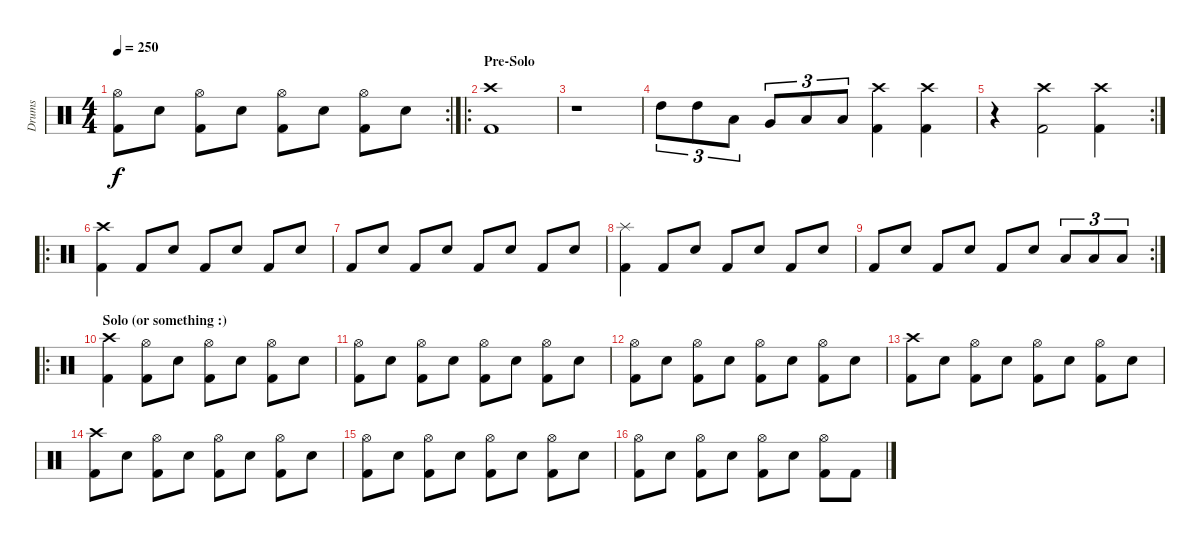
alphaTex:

\track ("Drums" "Drums") {instrument percussion}
\staff {score}
\articulation defaults
\rc 2
\ts (4 4)
\tempo 250
\clef neutral
\ks c
("Hi-Hat (open)" "Kick (hit) 2").8{dy f} "Snare (hit) 2".8 ("Hi-Hat (open)" "Kick (hit) 2").8 "Snare (hit) 2".8 ("Hi-Hat (open)" "Kick (hit) 2").8 "Snare (hit) 2".8 ("Hi-Hat (open)" "Kick (hit) 2").8 "Snare (hit) 2".8 |
\ro
\section ("" "Pre-Solo")
("Crash high (hit)" "Kick (hit) 2").1 |
r.1 |
"High Tom (hit)".8{tu (3 2)} "High Tom (hit)".8{tu (3 2)} "Low Tom (hit)".8{tu (3 2)} "Very Low Tom (hit)".8{tu (3 2)} "Low Floor Tom (hit)".8{tu (3 2)} "Low Floor Tom (hit)".8{tu (3 2)} ("Crash high (hit)" "Kick (hit) 2").4 ("Crash high (hit)" "Kick (hit) 2").4 |
\rc 2
r.4 ("Crash high (hit)" "Kick (hit) 2").2 ("Crash high (hit)" "Kick (hit) 2").4 |
\ro
("Crash high (hit)" "Kick (hit) 2").4 "Kick (hit) 2".8 "Snare (hit) 2".8 "Kick (hit) 2".8 "Snare (hit) 2".8 "Kick (hit) 2".8 "Snare (hit) 2".8 |
"Kick (hit) 2".8 "Snare (hit) 2".8 "Kick (hit) 2".8 "Snare (hit) 2".8 "Kick (hit) 2".8 "Snare (hit) 2".8 "Kick (hit) 2".8 "Snare (hit) 2".8 |
("Splash (hit)" "Kick (hit) 2").4 "Kick (hit) 2".8 "Snare (hit) 2".8 "Kick (hit) 2".8 "Snare (hit) 2".8 "Kick (hit) 2".8 "Snare (hit) 2".8 |
\rc 2 "Kick (hit) 2".8 "Snare (hit) 2".8 "Kick (hit) 2".8 "Snare (hit) 2".8 "Kick (hit) 2".8 "Snare (hit) 2".8 "Low Tom (hit)".8{tu (3 2)} "Low Tom (hit)".8{tu (3 2)} "Low Tom (hit)".8{tu (3 2)}
|
\ro
\section ("" "Solo (or something :)")
("Crash high (hit)" "Kick (hit) 2").4 ("Hi-Hat (open)" "Kick (hit) 2").8 "Snare (hit) 2".8 ("Hi-Hat (open)" "Kick (hit) 2").8 "Snare (hit) 2".8 ("Hi-Hat (open)" "Kick (hit) 2").8 "Snare (hit) 2".8 |
("Hi-Hat (open)" "Kick (hit) 2").8 "Snare (hit) 2".8 ("Hi-Hat (open)" "Kick (hit) 2").8 "Snare (hit) 2".8 ("Hi-Hat (open)" "Kick (hit) 2").8 "Snare (hit) 2".8 ("Hi-Hat (open)" "Kick (hit) 2").8 "Snare (hit) 2".8 |
("Hi-Hat (open)" "Kick (hit) 2").8 "Snare (hit) 2".8 ("Hi-Hat (open)" "Kick (hit) 2").8 "Snare (hit) 2".8 ("Hi-Hat (open)" "Kick (hit) 2").8 "Snare (hit) 2".8 ("Hi-Hat (open)" "Kick (hit) 2").8 "Snare (hit) 2".8 |
("Crash high (hit)" "Kick (hit) 2").8 "Snare (hit) 2".8 ("Hi-Hat (open)" "Kick (hit) 2").8 "Snare (hit) 2".8 ("Hi-Hat (open)" "Kick (hit) 2").8 "Snare (hit) 2".8 ("Hi-Hat (open)" "Kick (hit) 2").8 "Snare (hit) 2".8 |
("Crash high (hit)" "Kick (hit) 2").8 "Snare (hit) 2".8 ("Hi-Hat (open)" "Kick (hit) 2").8 "Snare (hit) 2".8 ("Hi-Hat (open)" "Kick (hit) 2").8 "Snare (hit) 2".8 ("Hi-Hat (open)" "Kick (hit) 2").8 "Snare (hit) 2".8 |
("Hi-Hat (open)" "Kick (hit) 2").8 "Snare (hit) 2".8 ("Hi-Hat (open)" "Kick (hit) 2").8 "Snare (hit) 2".8 ("Hi-Hat (open)" "Kick (hit) 2").8 "Snare (hit) 2".8 ("Hi-Hat (open)" "Kick (hit) 2").8 "Snare (hit) 2".8 |
("Hi-Hat (open)" "Kick (hit) 2").8 "Snare (hit) 2".8 ("Hi-Hat (open)" "Kick (hit) 2").8 "Snare (hit) 2".8 ("Hi-Hat (open)" "Kick (hit) 2").8 "Snare (hit) 2".8 ("Hi-Hat (open)" "Kick (hit) 2").8 "Kick (hit) 2".8
